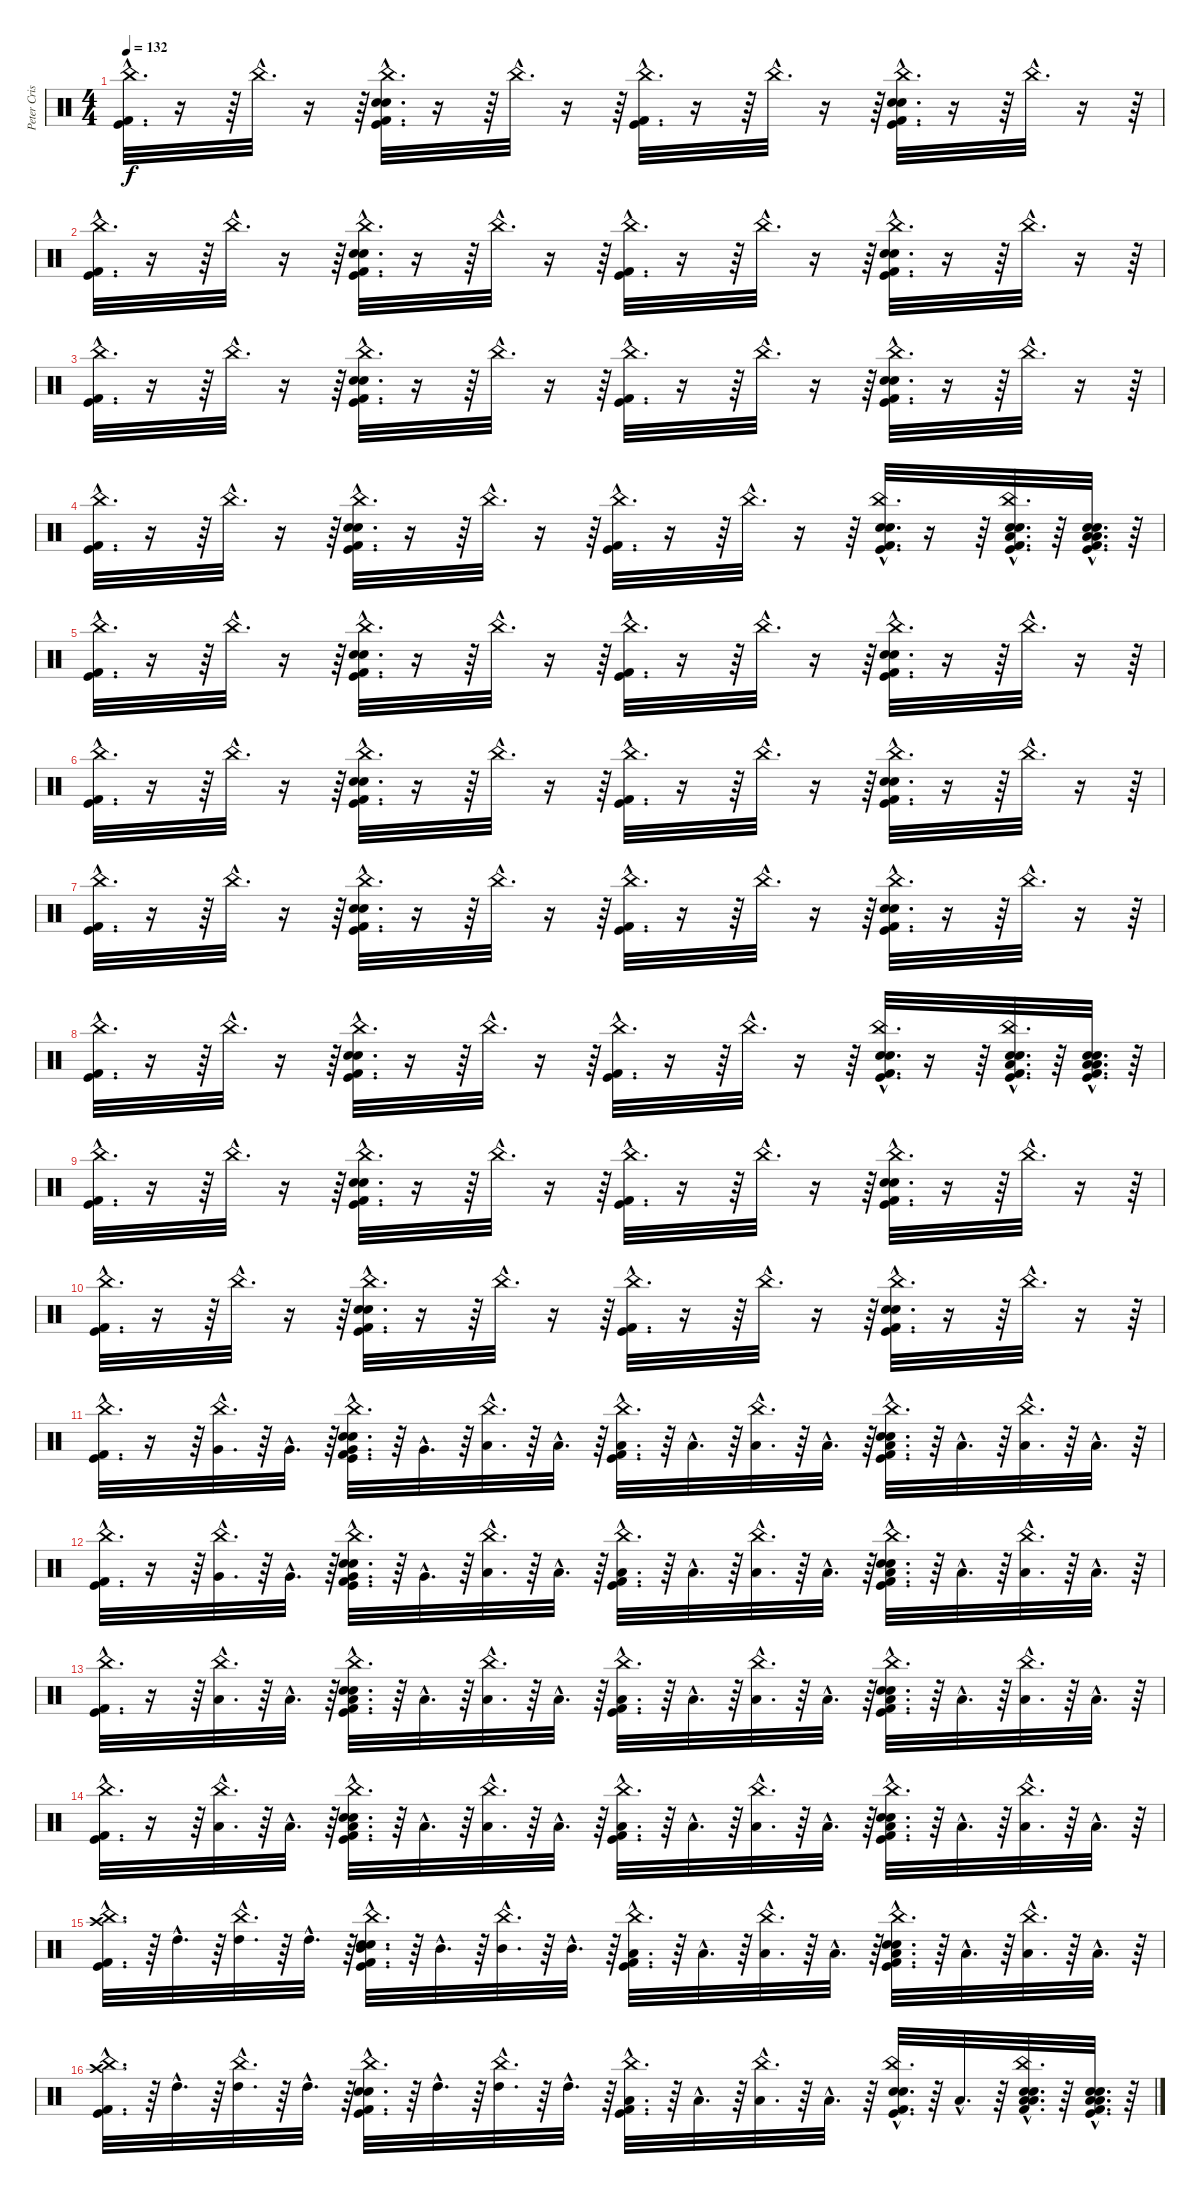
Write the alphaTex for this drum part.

\track ("Peter Criss" "Peter Cris") {instrument percussion}
\staff {score}
\articulation defaults
\ts (4 4)
\tempo 132
\clef neutral
\ks c
("Kick (hit) 2"{hac} "Kick (hit)"{hac} "China (hit)"{hac}).32{d dy f} r.16 r.64 "China (hit)"{hac}.32{d} r.16 r.64 ("Kick (hit) 2"{hac} "Kick (hit)"{hac} "China (hit)"{hac} "Electric Snare (hit)"{hac} "Snare (hit) 2"{hac}).32{d} r.16 r.64 "China (hit)"{hac}.32{d} r.16 r.64 ("Kick (hit) 2"{hac} "Kick (hit)"{hac} "China (hit)"{hac}).32{d} r.16 r.64 "China (hit)"{hac}.32{d} r.16 r.64 ("Kick (hit) 2"{hac} "Kick (hit)"{hac} "China (hit)"{hac} "Electric Snare (hit)"{hac} "Snare (hit) 2"{hac}).32{d} r.16 r.64 "China (hit)"{hac}.32{d} r.16 r.64 |
("Kick (hit) 2"{hac} "Kick (hit)"{hac} "China (hit)"{hac}).32{d} r.16 r.64 "China (hit)"{hac}.32{d} r.16 r.64 ("Kick (hit) 2"{hac} "Kick (hit)"{hac} "China (hit)"{hac} "Electric Snare (hit)"{hac} "Snare (hit) 2"{hac}).32{d} r.16 r.64 "China (hit)"{hac}.32{d} r.16 r.64 ("Kick (hit) 2"{hac} "Kick (hit)"{hac} "China (hit)"{hac}).32{d} r.16 r.64 "China (hit)"{hac}.32{d} r.16 r.64 ("Kick (hit) 2"{hac} "Kick (hit)"{hac} "China (hit)"{hac} "Electric Snare (hit)"{hac} "Snare (hit) 2"{hac}).32{d} r.16 r.64 "China (hit)"{hac}.32{d} r.16 r.64 |
("Kick (hit) 2"{hac} "Kick (hit)"{hac} "China (hit)"{hac}).32{d} r.16 r.64 "China (hit)"{hac}.32{d} r.16 r.64 ("Kick (hit) 2"{hac} "Kick (hit)"{hac} "China (hit)"{hac} "Electric Snare (hit)"{hac} "Snare (hit) 2"{hac}).32{d} r.16 r.64 "China (hit)"{hac}.32{d} r.16 r.64 ("Kick (hit) 2"{hac} "Kick (hit)"{hac} "China (hit)"{hac}).32{d} r.16 r.64 "China (hit)"{hac}.32{d} r.16 r.64 ("Kick (hit) 2"{hac} "Kick (hit)"{hac} "China (hit)"{hac} "Electric Snare (hit)"{hac} "Snare (hit) 2"{hac}).32{d} r.16 r.64 "China (hit)"{hac}.32{d} r.16 r.64 |
("Kick (hit) 2"{hac} "Kick (hit)"{hac} "China (hit)"{hac}).32{d} r.16 r.64 "China (hit)"{hac}.32{d} r.16 r.64 ("Kick (hit) 2"{hac} "Kick (hit)"{hac} "China (hit)"{hac} "Electric Snare (hit)"{hac} "Snare (hit) 2"{hac}).32{d} r.16 r.64 "China (hit)"{hac}.32{d} r.16 r.64 ("Kick (hit) 2"{hac} "Kick (hit)"{hac} "China (hit)"{hac}).32{d} r.16 r.64 "China (hit)"{hac}.32{d} r.16 r.64 ("Kick (hit) 2"{hac} "Kick (hit)"{hac} "China (hit)"{hac} "Electric Snare (hit)"{hac} "Snare (hit) 2"{hac}).32{d} r.16 r.64 ("China (hit)"{hac} "Electric Snare (hit)"{hac} "Snare (hit) 2"{hac} "Kick (hit) 2"{hac} "Kick (hit)"{hac} "Low Floor Tom (hit)"{hac}).32{d} r.64 ("Electric Snare (hit)"{hac} "Snare (hit) 2"{hac} "Kick (hit) 2"{hac} "Kick (hit)"{hac} "Low Tom (hit)"{hac} "Low Floor Tom (hit)"{hac}).32{d} r.64 |
("Kick (hit) 2"{hac} "Kick (hit)"{hac} "China (hit)"{hac}).32{d} r.16 r.64 "China (hit)"{hac}.32{d} r.16 r.64 ("Kick (hit) 2"{hac} "Kick (hit)"{hac} "China (hit)"{hac} "Electric Snare (hit)"{hac} "Snare (hit) 2"{hac}).32{d} r.16 r.64 "China (hit)"{hac}.32{d} r.16 r.64 ("Kick (hit) 2"{hac} "Kick (hit)"{hac} "China (hit)"{hac}).32{d} r.16 r.64 "China (hit)"{hac}.32{d} r.16 r.64 ("Kick (hit) 2"{hac} "Kick (hit)"{hac} "China (hit)"{hac} "Electric Snare (hit)"{hac} "Snare (hit) 2"{hac}).32{d} r.16 r.64 "China (hit)"{hac}.32{d} r.16 r.64 |
("Kick (hit) 2"{hac} "Kick (hit)"{hac} "China (hit)"{hac}).32{d} r.16 r.64 "China (hit)"{hac}.32{d} r.16 r.64 ("Kick (hit) 2"{hac} "Kick (hit)"{hac} "China (hit)"{hac} "Electric Snare (hit)"{hac} "Snare (hit) 2"{hac}).32{d} r.16 r.64 "China (hit)"{hac}.32{d} r.16 r.64 ("Kick (hit) 2"{hac} "Kick (hit)"{hac} "China (hit)"{hac}).32{d} r.16 r.64 "China (hit)"{hac}.32{d} r.16 r.64 ("Kick (hit) 2"{hac} "Kick (hit)"{hac} "China (hit)"{hac} "Electric Snare (hit)"{hac} "Snare (hit) 2"{hac}).32{d} r.16 r.64 "China (hit)"{hac}.32{d} r.16 r.64 |
("Kick (hit) 2"{hac} "Kick (hit)"{hac} "China (hit)"{hac}).32{d} r.16 r.64 "China (hit)"{hac}.32{d} r.16 r.64 ("Kick (hit) 2"{hac} "Kick (hit)"{hac} "China (hit)"{hac} "Electric Snare (hit)"{hac} "Snare (hit) 2"{hac}).32{d} r.16 r.64 "China (hit)"{hac}.32{d} r.16 r.64 ("Kick (hit) 2"{hac} "Kick (hit)"{hac} "China (hit)"{hac}).32{d} r.16 r.64 "China (hit)"{hac}.32{d} r.16 r.64 ("Kick (hit) 2"{hac} "Kick (hit)"{hac} "China (hit)"{hac} "Electric Snare (hit)"{hac} "Snare (hit) 2"{hac}).32{d} r.16 r.64 "China (hit)"{hac}.32{d} r.16 r.64 |
("Kick (hit) 2"{hac} "Kick (hit)"{hac} "China (hit)"{hac}).32{d} r.16 r.64 "China (hit)"{hac}.32{d} r.16 r.64 ("Kick (hit) 2"{hac} "Kick (hit)"{hac} "China (hit)"{hac} "Electric Snare (hit)"{hac} "Snare (hit) 2"{hac}).32{d} r.16 r.64 "China (hit)"{hac}.32{d} r.16 r.64 ("Kick (hit) 2"{hac} "Kick (hit)"{hac} "China (hit)"{hac}).32{d} r.16 r.64 "China (hit)"{hac}.32{d} r.16 r.64 ("Kick (hit) 2"{hac} "Kick (hit)"{hac} "China (hit)"{hac} "Electric Snare (hit)"{hac} "Snare (hit) 2"{hac}).32{d} r.16 r.64 ("China (hit)"{hac} "Electric Snare (hit)"{hac} "Snare (hit) 2"{hac} "Kick (hit) 2"{hac} "Kick (hit)"{hac} "Low Floor Tom (hit)"{hac}).32{d} r.64 ("Electric Snare (hit)"{hac} "Snare (hit) 2"{hac} "Kick (hit) 2"{hac} "Kick (hit)"{hac} "Low Tom (hit)"{hac} "Low Floor Tom (hit)"{hac}).32{d} r.64 |
("Kick (hit) 2"{hac} "Kick (hit)"{hac} "China (hit)"{hac}).32{d} r.16 r.64 "China (hit)"{hac}.32{d} r.16 r.64 ("Kick (hit) 2"{hac} "Kick (hit)"{hac} "China (hit)"{hac} "Electric Snare (hit)"{hac} "Snare (hit) 2"{hac}).32{d} r.16 r.64 "China (hit)"{hac}.32{d} r.16 r.64 ("Kick (hit) 2"{hac} "Kick (hit)"{hac} "China (hit)"{hac}).32{d} r.16 r.64 "China (hit)"{hac}.32{d} r.16 r.64 ("Kick (hit) 2"{hac} "Kick (hit)"{hac} "China (hit)"{hac} "Electric Snare (hit)"{hac} "Snare (hit) 2"{hac}).32{d} r.16 r.64 "China (hit)"{hac}.32{d} r.16 r.64 |
("Kick (hit) 2"{hac} "Kick (hit)"{hac} "China (hit)"{hac}).32{d} r.16 r.64 "China (hit)"{hac}.32{d} r.16 r.64 ("Kick (hit) 2"{hac} "Kick (hit)"{hac} "China (hit)"{hac} "Electric Snare (hit)"{hac} "Snare (hit) 2"{hac}).32{d} r.16 r.64 "China (hit)"{hac}.32{d} r.16 r.64 ("Kick (hit) 2"{hac} "Kick (hit)"{hac} "China (hit)"{hac}).32{d} r.16 r.64 "China (hit)"{hac}.32{d} r.16 r.64 ("Kick (hit) 2"{hac} "Kick (hit)"{hac} "China (hit)"{hac} "Electric Snare (hit)"{hac} "Snare (hit) 2"{hac}).32{d} r.16 r.64 "China (hit)"{hac}.32{d} r.16 r.64 |
("Kick (hit) 2"{hac} "Kick (hit)"{hac} "China (hit)"{hac}).32{d} r.16 r.64 ("China (hit)"{hac} "Very Low Tom (hit)"{hac}).32{d} r.64 "Very Low Tom (hit)"{hac}.32{d} r.64 ("Kick (hit) 2"{hac} "Kick (hit)"{hac} "China (hit)"{hac} "Electric Snare (hit)"{hac} "Snare (hit) 2"{hac} "Very Low Tom (hit)"{hac}).32{d} r.64 "Very Low Tom (hit)"{hac}.32{d} r.64 ("China (hit)"{hac} "Low Tom (hit)"{hac}).32{d} r.64 "Low Tom (hit)"{hac}.32{d} r.64 ("Kick (hit) 2"{hac} "Kick (hit)"{hac} "China (hit)"{hac} "Low Tom (hit)"{hac}).32{d} r.64 "Low Tom (hit)"{hac}.32{d} r.64 ("China (hit)"{hac} "Low Floor Tom (hit)"{hac}).32{d} r.64 "Low Floor Tom (hit)"{hac}.32{d} r.64 ("Kick (hit) 2"{hac} "Kick (hit)"{hac} "China (hit)"{hac} "Electric Snare (hit)"{hac} "Snare (hit) 2"{hac} "Low Floor Tom (hit)"{hac}).32{d} r.64 "Low Floor Tom (hit)"{hac}.32{d} r.64 ("China (hit)"{hac} "Low Floor Tom (hit)"{hac}).32{d} r.64 "Low Floor Tom (hit)"{hac}.32{d} r.64 |
("Kick (hit) 2"{hac} "Kick (hit)"{hac} "China (hit)"{hac}).32{d} r.16 r.64 ("China (hit)"{hac} "Very Low Tom (hit)"{hac}).32{d} r.64 "Very Low Tom (hit)"{hac}.32{d} r.64 ("Kick (hit) 2"{hac} "Kick (hit)"{hac} "China (hit)"{hac} "Electric Snare (hit)"{hac} "Snare (hit) 2"{hac} "Very Low Tom (hit)"{hac}).32{d} r.64 "Very Low Tom (hit)"{hac}.32{d} r.64 ("China (hit)"{hac} "Low Tom (hit)"{hac}).32{d} r.64 "Low Tom (hit)"{hac}.32{d} r.64 ("Kick (hit) 2"{hac} "Kick (hit)"{hac} "China (hit)"{hac} "Low Tom (hit)"{hac}).32{d} r.64 "Low Tom (hit)"{hac}.32{d} r.64 ("China (hit)"{hac} "Low Floor Tom (hit)"{hac}).32{d} r.64 "Low Floor Tom (hit)"{hac}.32{d} r.64 ("Kick (hit) 2"{hac} "Kick (hit)"{hac} "China (hit)"{hac} "Electric Snare (hit)"{hac} "Snare (hit) 2"{hac} "Low Floor Tom (hit)"{hac}).32{d} r.64 "Low Floor Tom (hit)"{hac}.32{d} r.64 ("China (hit)"{hac} "Low Floor Tom (hit)"{hac}).32{d} r.64 "Low Floor Tom (hit)"{hac}.32{d} r.64 |
("Kick (hit) 2"{hac} "Kick (hit)"{hac} "China (hit)"{hac}).32{d} r.16 r.64 ("China (hit)"{hac} "Low Floor Tom (hit)"{hac}).32{d} r.64 "Low Floor Tom (hit)"{hac}.32{d} r.64 ("Kick (hit) 2"{hac} "Kick (hit)"{hac} "China (hit)"{hac} "Electric Snare (hit)"{hac} "Snare (hit) 2"{hac} "Low Floor Tom (hit)"{hac}).32{d} r.64 "Low Floor Tom (hit)"{hac}.32{d} r.64 ("China (hit)"{hac} "Low Floor Tom (hit)"{hac}).32{d} r.64 "Low Floor Tom (hit)"{hac}.32{d} r.64 ("Kick (hit) 2"{hac} "Kick (hit)"{hac} "China (hit)"{hac} "Low Floor Tom (hit)"{hac}).32{d} r.64 "Low Floor Tom (hit)"{hac}.32{d} r.64 ("China (hit)"{hac} "Low Floor Tom (hit)"{hac}).32{d} r.64 "Low Floor Tom (hit)"{hac}.32{d} r.64 ("Kick (hit) 2"{hac} "Kick (hit)"{hac} "China (hit)"{hac} "Electric Snare (hit)"{hac} "Snare (hit) 2"{hac} "Low Floor Tom (hit)"{hac}).32{d} r.64 "Low Floor Tom (hit)"{hac}.32{d} r.64 ("China (hit)"{hac} "Low Floor Tom (hit)"{hac}).32{d} r.64 "Low Floor Tom (hit)"{hac}.32{d} r.64 |
("Kick (hit) 2"{hac} "Kick (hit)"{hac} "China (hit)"{hac}).32{d} r.16 r.64 ("China (hit)"{hac} "Low Floor Tom (hit)"{hac}).32{d} r.64 "Low Floor Tom (hit)"{hac}.32{d} r.64 ("Kick (hit) 2"{hac} "Kick (hit)"{hac} "China (hit)"{hac} "Electric Snare (hit)"{hac} "Snare (hit) 2"{hac} "Low Floor Tom (hit)"{hac}).32{d} r.64 "Low Floor Tom (hit)"{hac}.32{d} r.64 ("China (hit)"{hac} "Low Floor Tom (hit)"{hac}).32{d} r.64 "Low Floor Tom (hit)"{hac}.32{d} r.64 ("Kick (hit) 2"{hac} "Kick (hit)"{hac} "China (hit)"{hac} "Low Floor Tom (hit)"{hac}).32{d} r.64 "Low Floor Tom (hit)"{hac}.32{d} r.64 ("China (hit)"{hac} "Low Floor Tom (hit)"{hac}).32{d} r.64 "Low Floor Tom (hit)"{hac}.32{d} r.64 ("Kick (hit) 2"{hac} "Kick (hit)"{hac} "China (hit)"{hac} "Electric Snare (hit)"{hac} "Snare (hit) 2"{hac} "Low Floor Tom (hit)"{hac}).32{d} r.64 "Low Floor Tom (hit)"{hac}.32{d} r.64 ("China (hit)"{hac} "Low Floor Tom (hit)"{hac}).32{d} r.64 "Low Floor Tom (hit)"{hac}.32{d} r.64 |
("Kick (hit) 2"{hac} "Kick (hit)"{hac} "China (hit)"{hac} "Crash high (hit)"{hac}).32{d} r.64 "High Tom (hit)"{hac}.32{d} r.64 ("China (hit)"{hac} "High Tom (hit)"{hac}).32{d} r.64 "High Tom (hit)"{hac}.32{d} r.64 ("Kick (hit) 2"{hac} "Kick (hit)"{hac} "China (hit)"{hac} "Electric Snare (hit)"{hac} "Snare (hit) 2"{hac} "Mid Tom (hit)"{hac}).32{d} r.64 "Mid Tom (hit)"{hac}.32{d} r.64 ("China (hit)"{hac} "Mid Tom (hit)"{hac}).32{d} r.64 "Mid Tom (hit)"{hac}.32{d} r.64 ("Kick (hit) 2"{hac} "Kick (hit)"{hac} "China (hit)"{hac} "Low Tom (hit)"{hac}).32{d} r.64 "Low Tom (hit)"{hac}.32{d} r.64 ("China (hit)"{hac} "Low Tom (hit)"{hac}).32{d} r.64 "Low Tom (hit)"{hac}.32{d} r.64 ("Kick (hit) 2"{hac} "Kick (hit)"{hac} "China (hit)"{hac} "Electric Snare (hit)"{hac} "Snare (hit) 2"{hac} "Low Floor Tom (hit)"{hac}).32{d} r.64 "Low Floor Tom (hit)"{hac}.32{d} r.64 ("China (hit)"{hac} "Low Floor Tom (hit)"{hac}).32{d} r.64 "Low Floor Tom (hit)"{hac}.32{d} r.64 |
("Kick (hit) 2"{hac} "Kick (hit)"{hac} "China (hit)"{hac} "Crash high (hit)"{hac}).32{d} r.64 "High Tom (hit)"{hac}.32{d} r.64 ("China (hit)"{hac} "High Tom (hit)"{hac}).32{d} r.64 "High Tom (hit)"{hac}.32{d} r.64 ("Kick (hit) 2"{hac} "Kick (hit)"{hac} "China (hit)"{hac} "Electric Snare (hit)"{hac} "Snare (hit) 2"{hac}).32{d} r.64 "High Tom (hit)"{hac}.32{d} r.64 ("China (hit)"{hac} "High Tom (hit)"{hac}).32{d} r.64 "High Tom (hit)"{hac}.32{d} r.64 ("Kick (hit) 2"{hac} "Kick (hit)"{hac} "China (hit)"{hac} "Low Tom (hit)"{hac}).32{d} r.64 "Low Tom (hit)"{hac}.32{d} r.64 ("China (hit)"{hac} "Low Tom (hit)"{hac}).32{d} r.64 "Low Tom (hit)"{hac}.32{d} r.64 ("Kick (hit) 2"{hac} "Kick (hit)"{hac} "China (hit)"{hac} "Electric Snare (hit)"{hac} "Snare (hit) 2"{hac}).32{d} r.64 "Low Tom (hit)"{hac}.32{d} r.64 ("China (hit)"{hac} "Low Tom (hit)"{hac} "Electric Snare (hit)"{hac} "Snare (hit) 2"{hac} "Kick (hit) 2"{hac} "Low Floor Tom (hit)"{hac}).32{d} r.64 ("Low Tom (hit)"{hac} "Electric Snare (hit)"{hac} "Snare (hit) 2"{hac} "Kick (hit) 2"{hac} "Kick (hit)"{hac} "Low Floor Tom (hit)"{hac}).32{d} r.64
